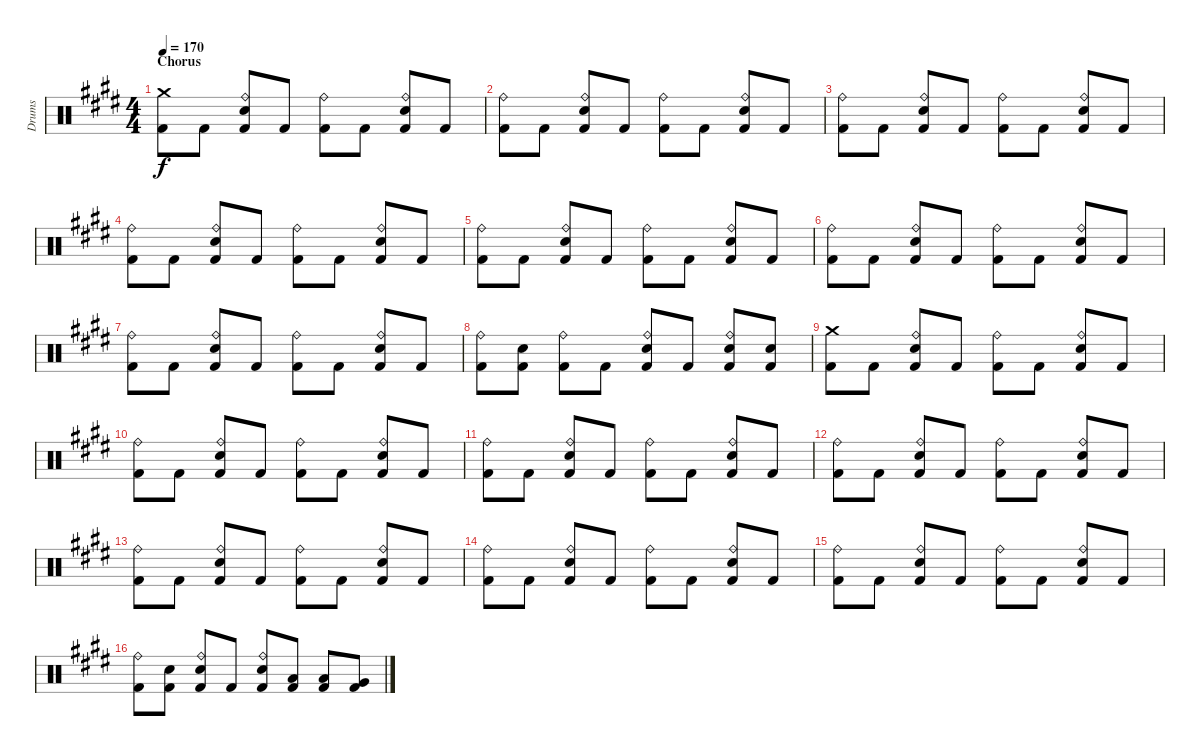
\track ("Drums" "Drums") {instrument percussion}
\staff {score}
\articulation defaults
\ts (4 4)
\section ("" "Chorus")
\tempo 170
\clef neutral
\ks c#minor
("Crash medium (hit)" "Kick (hit) 2").8{dy f} "Kick (hit) 2".8 ("Ride (bell)" "Electric Snare (hit)" "Kick (hit) 2").8 "Kick (hit) 2".8 ("Ride (bell)" "Kick (hit) 2").8 "Kick (hit) 2".8 ("Ride (bell)" "Electric Snare (hit)" "Kick (hit) 2").8 "Kick (hit) 2".8 |
("Ride (bell)" "Kick (hit) 2").8 "Kick (hit) 2".8 ("Ride (bell)" "Electric Snare (hit)" "Kick (hit) 2").8 "Kick (hit) 2".8 ("Ride (bell)" "Kick (hit) 2").8 "Kick (hit) 2".8 ("Ride (bell)" "Electric Snare (hit)" "Kick (hit) 2").8 "Kick (hit) 2".8 |
("Ride (bell)" "Kick (hit) 2").8 "Kick (hit) 2".8 ("Ride (bell)" "Electric Snare (hit)" "Kick (hit) 2").8 "Kick (hit) 2".8 ("Ride (bell)" "Kick (hit) 2").8 "Kick (hit) 2".8 ("Ride (bell)" "Electric Snare (hit)" "Kick (hit) 2").8 "Kick (hit) 2".8 |
("Ride (bell)" "Kick (hit) 2").8 "Kick (hit) 2".8 ("Ride (bell)" "Electric Snare (hit)" "Kick (hit) 2").8 "Kick (hit) 2".8 ("Ride (bell)" "Kick (hit) 2").8 "Kick (hit) 2".8 ("Ride (bell)" "Electric Snare (hit)" "Kick (hit) 2").8 "Kick (hit) 2".8 |
("Ride (bell)" "Kick (hit) 2").8 "Kick (hit) 2".8 ("Ride (bell)" "Electric Snare (hit)" "Kick (hit) 2").8 "Kick (hit) 2".8 ("Ride (bell)" "Kick (hit) 2").8 "Kick (hit) 2".8 ("Ride (bell)" "Electric Snare (hit)" "Kick (hit) 2").8 "Kick (hit) 2".8 |
("Ride (bell)" "Kick (hit) 2").8 "Kick (hit) 2".8 ("Ride (bell)" "Electric Snare (hit)" "Kick (hit) 2").8 "Kick (hit) 2".8 ("Ride (bell)" "Kick (hit) 2").8 "Kick (hit) 2".8 ("Ride (bell)" "Electric Snare (hit)" "Kick (hit) 2").8 "Kick (hit) 2".8 |
("Ride (bell)" "Kick (hit) 2").8 "Kick (hit) 2".8 ("Ride (bell)" "Electric Snare (hit)" "Kick (hit) 2").8 "Kick (hit) 2".8 ("Ride (bell)" "Kick (hit) 2").8 "Kick (hit) 2".8 ("Ride (bell)" "Electric Snare (hit)" "Kick (hit) 2").8 "Kick (hit) 2".8 |
("Ride (bell)" "Kick (hit) 2").8 ("Electric Snare (hit)" "Kick (hit) 2").8 ("Ride (bell)" "Kick (hit) 2").8 "Kick (hit) 2".8 ("Ride (bell)" "Electric Snare (hit)" "Kick (hit) 2").8 "Kick (hit) 2".8 ("Ride (bell)" "Electric Snare (hit)" "Kick (hit) 2").8 ("Electric Snare (hit)" "Kick (hit) 2").8 |
("Crash medium (hit)" "Kick (hit) 2").8 "Kick (hit) 2".8 ("Ride (bell)" "Electric Snare (hit)" "Kick (hit) 2").8 "Kick (hit) 2".8 ("Ride (bell)" "Kick (hit) 2").8 "Kick (hit) 2".8 ("Ride (bell)" "Electric Snare (hit)" "Kick (hit) 2").8 "Kick (hit) 2".8 |
("Ride (bell)" "Kick (hit) 2").8 "Kick (hit) 2".8 ("Ride (bell)" "Electric Snare (hit)" "Kick (hit) 2").8 "Kick (hit) 2".8 ("Ride (bell)" "Kick (hit) 2").8 "Kick (hit) 2".8 ("Ride (bell)" "Electric Snare (hit)" "Kick (hit) 2").8 "Kick (hit) 2".8 |
("Ride (bell)" "Kick (hit) 2").8 "Kick (hit) 2".8 ("Ride (bell)" "Electric Snare (hit)" "Kick (hit) 2").8 "Kick (hit) 2".8 ("Ride (bell)" "Kick (hit) 2").8 "Kick (hit) 2".8 ("Ride (bell)" "Electric Snare (hit)" "Kick (hit) 2").8 "Kick (hit) 2".8 |
("Ride (bell)" "Kick (hit) 2").8 "Kick (hit) 2".8 ("Ride (bell)" "Electric Snare (hit)" "Kick (hit) 2").8 "Kick (hit) 2".8 ("Ride (bell)" "Kick (hit) 2").8 "Kick (hit) 2".8 ("Ride (bell)" "Electric Snare (hit)" "Kick (hit) 2").8 "Kick (hit) 2".8 |
("Ride (bell)" "Kick (hit) 2").8 "Kick (hit) 2".8 ("Ride (bell)" "Electric Snare (hit)" "Kick (hit) 2").8 "Kick (hit) 2".8 ("Ride (bell)" "Kick (hit) 2").8 "Kick (hit) 2".8 ("Ride (bell)" "Electric Snare (hit)" "Kick (hit) 2").8 "Kick (hit) 2".8 |
("Ride (bell)" "Kick (hit) 2").8 "Kick (hit) 2".8 ("Ride (bell)" "Electric Snare (hit)" "Kick (hit) 2").8 "Kick (hit) 2".8 ("Ride (bell)" "Kick (hit) 2").8 "Kick (hit) 2".8 ("Ride (bell)" "Electric Snare (hit)" "Kick (hit) 2").8 "Kick (hit) 2".8 |
("Ride (bell)" "Kick (hit) 2").8 "Kick (hit) 2".8 ("Ride (bell)" "Electric Snare (hit)" "Kick (hit) 2").8 "Kick (hit) 2".8 ("Ride (bell)" "Kick (hit) 2").8 "Kick (hit) 2".8 ("Ride (bell)" "Electric Snare (hit)" "Kick (hit) 2").8 "Kick (hit) 2".8 |
("Ride (bell)" "Kick (hit) 2").8 ("Electric Snare (hit)" "Kick (hit) 2").8 ("Ride (bell)" "Electric Snare (hit)" "Kick (hit) 2").8 "Kick (hit) 2".8 ("Ride (bell)" "Electric Snare (hit)" "Kick (hit) 2").8 ("Low Tom (hit)" "Kick (hit) 2").8 ("Low Tom (hit)" "Kick (hit) 2").8 ("Very Low Tom (hit)" "Kick (hit) 2").8
